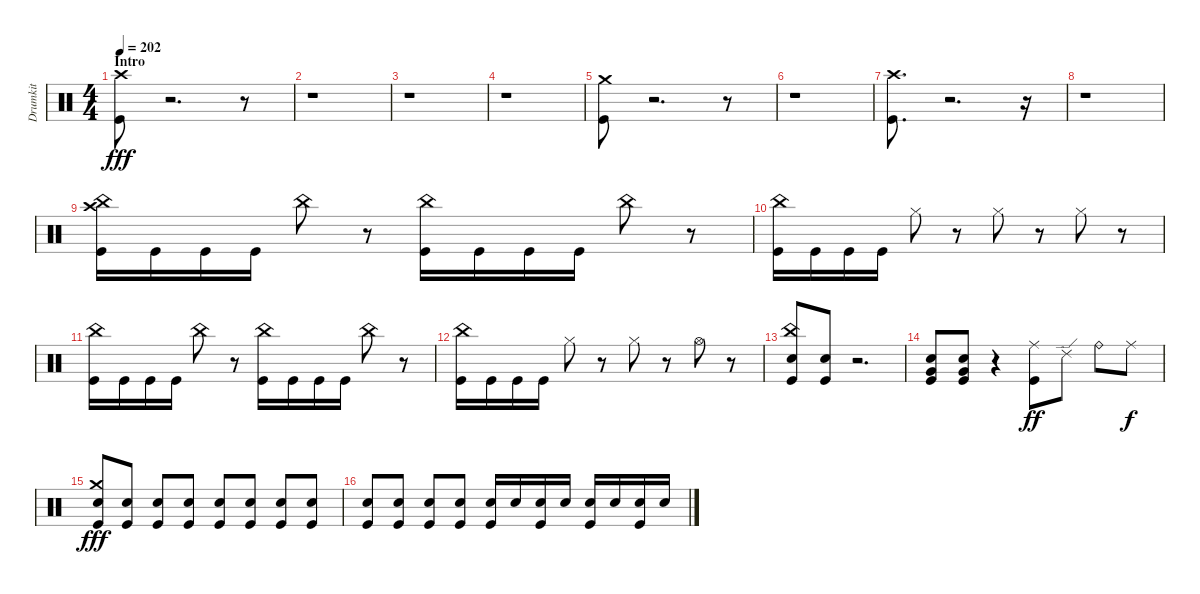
\track ("Drumkit" "Drumkit") {instrument percussion}
\staff {score}
\articulation defaults
\ts (4 4)
\section ("" "Intro")
\tempo 202
\clef neutral
\ks c
("Crash high (hit)" "Kick (hit)").8{dy fff} r.2{d} r.8 |
r.1 |
r.1 |
r.1 |
("Crash medium (hit)" "Kick (hit)").8 r.2{d} r.8 |
r.1 |
("Crash high (hit)" "Kick (hit)").8{d} r.2{d} r.16 |
r.1 |
("China (hit)" "Crash high (hit)" "Kick (hit)").16 "Kick (hit)".16 "Kick (hit)".16 "Kick (hit)".16 "China (hit)".8 r.8 ("China (hit)" "Kick (hit)").16 "Kick (hit)".16 "Kick (hit)".16 "Kick (hit)".16 "China (hit)".8 r.8 |
("China (hit)" "Kick (hit)").16 "Kick (hit)".16 "Kick (hit)".16 "Kick (hit)".16 "Hi-Hat (closed)".8 r.8 "Hi-Hat (closed)".8 r.8 "Hi-Hat (closed)".8 r.8 |
("China (hit)" "Kick (hit)").16 "Kick (hit)".16 "Kick (hit)".16 "Kick (hit)".16 "China (hit)".8 r.8 ("China (hit)" "Kick (hit)").16 "Kick (hit)".16 "Kick (hit)".16 "Kick (hit)".16 "China (hit)".8 r.8 |
("China (hit)" "Kick (hit)").16 "Kick (hit)".16 "Kick (hit)".16 "Kick (hit)".16 "Hi-Hat (closed)".8 r.8 "Hi-Hat (closed)".8 r.8 "Hi-Hat (open)".8 r.8 |
("China (hit)" "Snare (hit) 2" "Kick (hit)").8 ("Snare (hit) 2" "Kick (hit)").8 r.2{d} |
("Very Low Tom (hit)" "Snare (hit) 2" "Kick (hit)").8 ("Very Low Tom (hit)" "Snare (hit) 2" "Kick (hit)").8 r.4 ("Ride (middle)" "Kick (hit)").8{dy ff} "Ride (edge) 2".8 "Ride (bell)".8 "Ride (middle)".8{dy f} |
("Crash medium (hit)" "Snare (hit) 2" "Kick (hit)").8{dy fff} ("Snare (hit) 2" "Kick (hit)").8 ("Snare (hit) 2" "Kick (hit)").8 ("Snare (hit) 2" "Kick (hit)").8 ("Snare (hit) 2" "Kick (hit)").8 ("Snare (hit) 2" "Kick (hit)").8 ("Snare (hit) 2" "Kick (hit)").8 ("Snare (hit) 2" "Kick (hit)").8 |
("Snare (hit) 2" "Kick (hit)").8 ("Snare (hit) 2" "Kick (hit)").8 ("Snare (hit) 2" "Kick (hit)").8 ("Snare (hit) 2" "Kick (hit)").8 ("Snare (hit) 2" "Kick (hit)").16 "Snare (hit) 2".16 ("Snare (hit) 2" "Kick (hit)").16 "Snare (hit) 2".16 ("Snare (hit) 2" "Kick (hit)").16 "Snare (hit) 2".16 ("Snare (hit) 2" "Kick (hit)").16 "Snare (hit) 2".16
